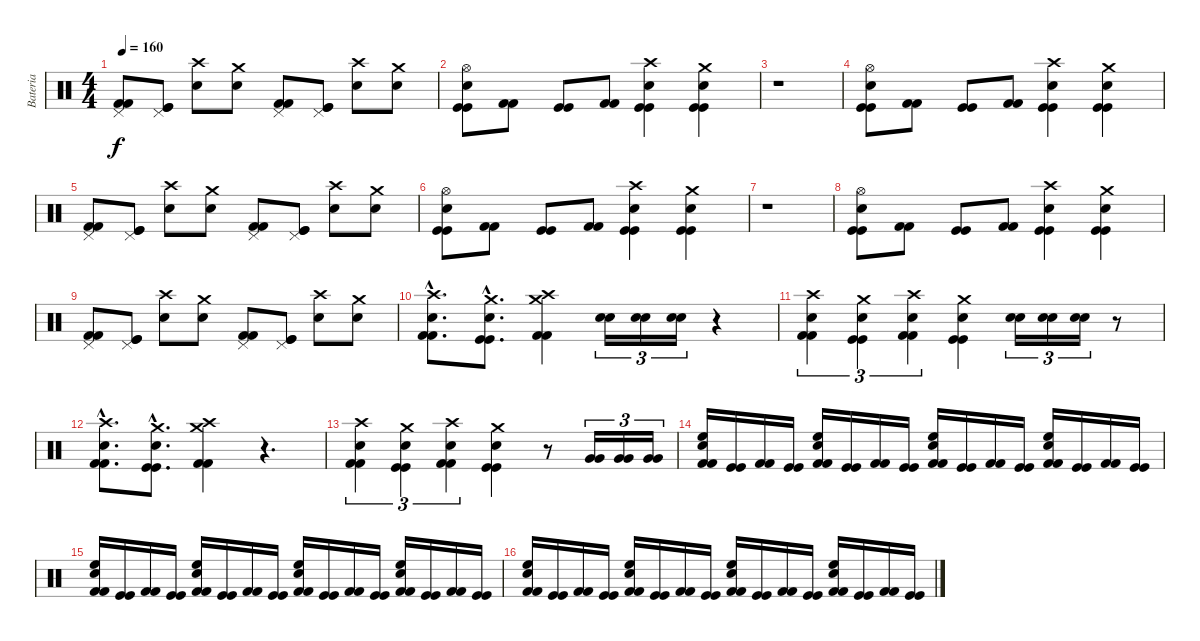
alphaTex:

\track ("Bateria" "Bateria") {instrument percussion}
\staff {score}
\articulation defaults
\ts (4 4)
\tempo 160
\clef neutral
\ks c
("Kick (hit) 2" "Kick (hit) 2" "Pedal Hi-Hat (hit)").8{dy f} ("Kick (hit)" "Kick (hit)" "Pedal Hi-Hat (hit)").8 ("Snare (hit) 2" "Crash high (hit)").8 ("Snare (hit) 2" "Crash medium (hit)").8 ("Kick (hit) 2" "Kick (hit) 2" "Pedal Hi-Hat (hit)").8 ("Kick (hit)" "Kick (hit)" "Pedal Hi-Hat (hit)").8 ("Snare (hit) 2" "Crash high (hit)").8 ("Snare (hit) 2" "Crash medium (hit)").8 |
("Kick (hit)" "Kick (hit)" "Snare (hit) 2" "Hi-Hat (open)").8 ("Kick (hit) 2" "Kick (hit) 2").8 ("Kick (hit)" "Kick (hit)").8 ("Kick (hit) 2" "Kick (hit) 2").8 ("Kick (hit)" "Kick (hit)" "Snare (hit) 2" "Crash high (hit)").4 ("Kick (hit)" "Kick (hit)" "Snare (hit) 2" "Crash medium (hit)").4 |
r.1 |
("Kick (hit)" "Kick (hit)" "Snare (hit) 2" "Hi-Hat (open)").8 ("Kick (hit) 2" "Kick (hit) 2").8 ("Kick (hit)" "Kick (hit)").8 ("Kick (hit) 2" "Kick (hit) 2").8 ("Kick (hit)" "Kick (hit)" "Snare (hit) 2" "Crash high (hit)").4 ("Kick (hit)" "Kick (hit)" "Snare (hit) 2" "Crash medium (hit)").4 |
("Kick (hit) 2" "Kick (hit) 2" "Pedal Hi-Hat (hit)").8 ("Kick (hit)" "Kick (hit)" "Pedal Hi-Hat (hit)").8 ("Snare (hit) 2" "Crash high (hit)").8 ("Snare (hit) 2" "Crash medium (hit)").8 ("Kick (hit) 2" "Kick (hit) 2" "Pedal Hi-Hat (hit)").8 ("Kick (hit)" "Kick (hit)" "Pedal Hi-Hat (hit)").8 ("Snare (hit) 2" "Crash high (hit)").8 ("Snare (hit) 2" "Crash medium (hit)").8 |
("Kick (hit)" "Kick (hit)" "Snare (hit) 2" "Hi-Hat (open)").8 ("Kick (hit) 2" "Kick (hit) 2").8 ("Kick (hit)" "Kick (hit)").8 ("Kick (hit) 2" "Kick (hit) 2").8 ("Kick (hit)" "Kick (hit)" "Snare (hit) 2" "Crash high (hit)").4 ("Kick (hit)" "Kick (hit)" "Snare (hit) 2" "Crash medium (hit)").4 |
r.1 |
("Kick (hit)" "Kick (hit)" "Snare (hit) 2" "Hi-Hat (open)").8 ("Kick (hit) 2" "Kick (hit) 2").8 ("Kick (hit)" "Kick (hit)").8 ("Kick (hit) 2" "Kick (hit) 2").8 ("Kick (hit)" "Kick (hit)" "Snare (hit) 2" "Crash high (hit)").4 ("Kick (hit)" "Kick (hit)" "Snare (hit) 2" "Crash medium (hit)").4 |
("Kick (hit) 2" "Kick (hit) 2" "Pedal Hi-Hat (hit)").8 ("Kick (hit)" "Kick (hit)" "Pedal Hi-Hat (hit)").8 ("Snare (hit) 2" "Crash high (hit)").8 ("Snare (hit) 2" "Crash medium (hit)").8 ("Kick (hit) 2" "Kick (hit) 2" "Pedal Hi-Hat (hit)").8 ("Kick (hit)" "Kick (hit)" "Pedal Hi-Hat (hit)").8 ("Snare (hit) 2" "Crash high (hit)").8 ("Snare (hit) 2" "Crash medium (hit)").8 |
("Kick (hit) 2"{hac} "Kick (hit) 2"{hac} "Snare (hit) 2"{hac} "Crash high (hit)"{hac}).8{d} ("Kick (hit)"{hac} "Kick (hit)"{hac} "Snare (hit) 2"{hac} "Crash medium (hit)"{hac}).8{d} ("Kick (hit) 2" "Kick (hit) 2" "Crash medium (hit)" "Crash high (hit)").4 ("Snare (hit) 2" "Snare (hit) 2").16{tu (3 2)} ("Snare (hit) 2" "Snare (hit) 2").16{tu (3 2)} ("Snare (hit) 2" "Snare (hit) 2").16{tu (3 2)} r.4 |
("Kick (hit) 2" "Kick (hit) 2" "Snare (hit) 2" "Crash high (hit)").4{tu (3 2)} ("Kick (hit)" "Kick (hit)" "Snare (hit) 2" "Crash medium (hit)").4{tu (3 2)} ("Kick (hit) 2" "Kick (hit) 2" "Snare (hit) 2" "Crash high (hit)").4{tu (3 2)} ("Kick (hit)" "Kick (hit)" "Snare (hit) 2" "Crash medium (hit)").4 ("Snare (hit) 2" "Snare (hit) 2").16{tu (3 2)} ("Snare (hit) 2" "Snare (hit) 2").16{tu (3 2)} ("Snare (hit) 2" "Snare (hit) 2").16{tu (3 2)} r.8 |
("Kick (hit) 2"{hac} "Kick (hit) 2"{hac} "Snare (hit) 2"{hac} "Crash high (hit)"{hac}).8{d} ("Kick (hit)"{hac} "Kick (hit)"{hac} "Snare (hit) 2"{hac} "Crash medium (hit)"{hac}).8{d} ("Kick (hit) 2" "Kick (hit) 2" "Crash medium (hit)" "Crash high (hit)").4 r.4{d} |
("Kick (hit) 2" "Kick (hit) 2" "Snare (hit) 2" "Crash high (hit)").4{tu (3 2)} ("Kick (hit)" "Kick (hit)" "Snare (hit) 2" "Crash medium (hit)").4{tu (3 2)} ("Kick (hit) 2" "Kick (hit) 2" "Snare (hit) 2" "Crash high (hit)").4{tu (3 2)} ("Kick (hit)" "Kick (hit)" "Snare (hit) 2" "Crash medium (hit)").4 r.8 ("Very Low Tom (hit)" "Very Low Tom (hit)").16{tu (3 2)} ("Very Low Tom (hit)" "Very Low Tom (hit)").16{tu (3 2)} ("Very Low Tom (hit)" "Very Low Tom (hit)").16{tu (3 2)} |
("Kick (hit) 2" "Kick (hit) 2" "Snare (hit) 2" "High Floor Tom (hit)").16 ("Kick (hit)" "Kick (hit)").16 ("Kick (hit) 2" "Kick (hit) 2").16 ("Kick (hit)" "Kick (hit)").16 ("Kick (hit) 2" "Kick (hit) 2" "Snare (hit) 2" "High Floor Tom (hit)").16 ("Kick (hit)" "Kick (hit)").16 ("Kick (hit) 2" "Kick (hit) 2").16 ("Kick (hit)" "Kick (hit)").16 ("Kick (hit) 2" "Kick (hit) 2" "Snare (hit) 2" "High Floor Tom (hit)").16 ("Kick (hit)" "Kick (hit)").16 ("Kick (hit) 2" "Kick (hit) 2").16 ("Kick (hit)" "Kick (hit)").16 ("Kick (hit) 2" "Kick (hit) 2" "Snare (hit) 2" "High Floor Tom (hit)").16 ("Kick (hit)" "Kick (hit)").16 ("Kick (hit) 2" "Kick (hit) 2").16 ("Kick (hit)" "Kick (hit)").16 |
("Kick (hit) 2" "Kick (hit) 2" "Snare (hit) 2" "High Floor Tom (hit)").16 ("Kick (hit)" "Kick (hit)").16 ("Kick (hit) 2" "Kick (hit) 2").16 ("Kick (hit)" "Kick (hit)").16 ("Kick (hit) 2" "Kick (hit) 2" "Snare (hit) 2" "High Floor Tom (hit)").16 ("Kick (hit)" "Kick (hit)").16 ("Kick (hit) 2" "Kick (hit) 2").16 ("Kick (hit)" "Kick (hit)").16 ("Kick (hit) 2" "Kick (hit) 2" "Snare (hit) 2" "High Floor Tom (hit)").16 ("Kick (hit)" "Kick (hit)").16 ("Kick (hit) 2" "Kick (hit) 2").16 ("Kick (hit)" "Kick (hit)").16 ("Kick (hit) 2" "Kick (hit) 2" "Snare (hit) 2" "High Floor Tom (hit)").16 ("Kick (hit)" "Kick (hit)").16 ("Kick (hit) 2" "Kick (hit) 2").16 ("Kick (hit)" "Kick (hit)").16 |
("Kick (hit) 2" "Kick (hit) 2" "Snare (hit) 2" "High Floor Tom (hit)").16 ("Kick (hit)" "Kick (hit)").16 ("Kick (hit) 2" "Kick (hit) 2").16 ("Kick (hit)" "Kick (hit)").16 ("Kick (hit) 2" "Kick (hit) 2" "Snare (hit) 2" "High Floor Tom (hit)").16 ("Kick (hit)" "Kick (hit)").16 ("Kick (hit) 2" "Kick (hit) 2").16 ("Kick (hit)" "Kick (hit)").16 ("Kick (hit) 2" "Kick (hit) 2" "Snare (hit) 2" "High Floor Tom (hit)").16 ("Kick (hit)" "Kick (hit)").16 ("Kick (hit) 2" "Kick (hit) 2").16 ("Kick (hit)" "Kick (hit)").16 ("Kick (hit) 2" "Kick (hit) 2" "Snare (hit) 2" "High Floor Tom (hit)").16 ("Kick (hit)" "Kick (hit)").16 ("Kick (hit) 2" "Kick (hit) 2").16 ("Kick (hit)" "Kick (hit)").16
